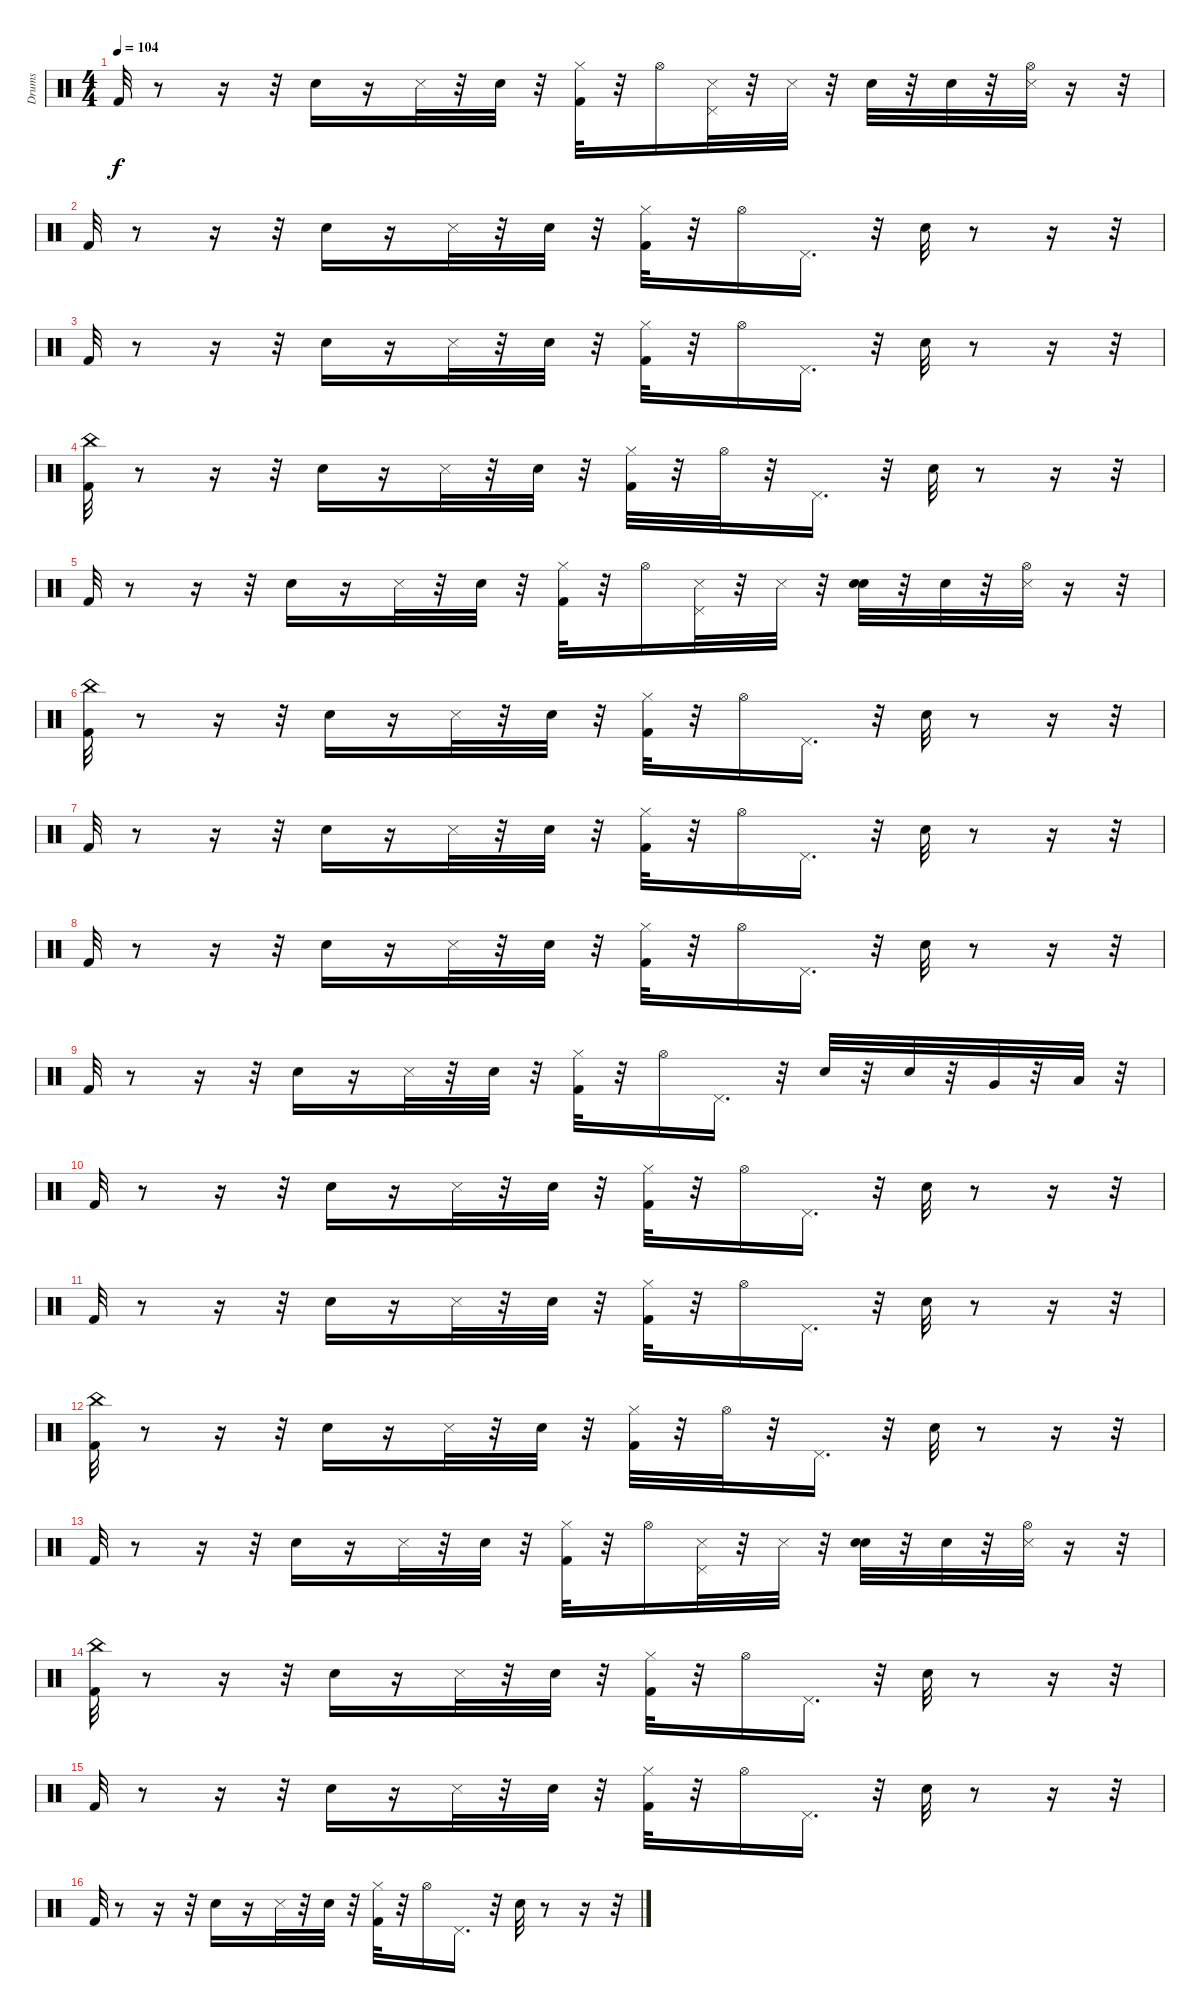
\track ("Drums" "Drums") {instrument percussion}
\staff {score}
\articulation defaults
\ts (4 4)
\tempo 104
\clef neutral
\ks c "Kick (hit) 2".32{dy f}
r.8 r.16 r.32 "Snare (hit) 2".16 r.16 "Snare (side stick) 3".32 r.32 "Electric Snare (hit)".32 r.32 ("Kick (hit) 2" "Hi-Hat (closed)").32 r.32 "Hi-Hat (open)".16 ("Snare (side stick) 3" "Pedal Hi-Hat (hit)").32 r.32 "Snare (side stick) 3".32 r.32 "Snare (hit) 2".32 r.32 "Electric Snare (hit)".32 r.32 ("Snare (side stick) 3" "Hi-Hat (open)").32 r.16 r.32 |
"Kick (hit) 2".32 r.8 r.16 r.32 "Snare (hit) 2".16 r.16 "Snare (side stick) 3".32 r.32 "Electric Snare (hit)".32 r.32 ("Kick (hit) 2" "Hi-Hat (closed)").32 r.32 "Hi-Hat (open)".16 "Pedal Hi-Hat (hit)".16{d} r.32 "Snare (hit) 2".32 r.8 r.16 r.32 |
"Kick (hit) 2".32 r.8 r.16 r.32 "Snare (hit) 2".16 r.16 "Snare (side stick) 3".32 r.32 "Electric Snare (hit)".32 r.32 ("Kick (hit) 2" "Hi-Hat (closed)").32 r.32 "Hi-Hat (open)".16 "Pedal Hi-Hat (hit)".16{d} r.32 "Snare (hit) 2".32 r.8 r.16 r.32 |
("Kick (hit) 2" "China (hit)").32 r.8 r.16 r.32 "Snare (hit) 2".16 r.16 "Snare (side stick) 3".32 r.32 "Electric Snare (hit)".32 r.32 ("Kick (hit) 2" "Hi-Hat (closed)").32 r.32 "Hi-Hat (open)".32 r.32 "Pedal Hi-Hat (hit)".16{d} r.32 "Snare (hit) 2".32 r.8 r.16 r.32 |
"Kick (hit) 2".32 r.8 r.16 r.32 "Snare (hit) 2".16 r.16 "Snare (side stick) 3".32 r.32 "Electric Snare (hit)".32 r.32 ("Kick (hit) 2" "Hi-Hat (closed)").32 r.32 "Hi-Hat (open)".16 ("Snare (side stick) 3" "Pedal Hi-Hat (hit)").32 r.32 "Snare (side stick) 3".32 r.32 ("Snare (hit) 2" "Electric Snare (hit)").32 r.32 "Electric Snare (hit)".32 r.32 ("Snare (side stick) 3" "Hi-Hat (open)").32 r.16 r.32 |
("Kick (hit) 2" "China (hit)").32 r.8 r.16 r.32 "Snare (hit) 2".16 r.16 "Snare (side stick) 3".32 r.32 "Electric Snare (hit)".32 r.32 ("Kick (hit) 2" "Hi-Hat (closed)").32 r.32 "Hi-Hat (open)".16 "Pedal Hi-Hat (hit)".16{d} r.32 "Snare (hit) 2".32 r.8 r.16 r.32 |
"Kick (hit) 2".32 r.8 r.16 r.32 "Snare (hit) 2".16 r.16 "Snare (side stick) 3".32 r.32 "Electric Snare (hit)".32 r.32 ("Kick (hit) 2" "Hi-Hat (closed)").32 r.32 "Hi-Hat (open)".16 "Pedal Hi-Hat (hit)".16{d} r.32 "Snare (hit) 2".32 r.8 r.16 r.32 |
"Kick (hit) 2".32 r.8 r.16 r.32 "Snare (hit) 2".16 r.16 "Snare (side stick) 3".32 r.32 "Electric Snare (hit)".32 r.32 ("Kick (hit) 2" "Hi-Hat (closed)").32 r.32 "Hi-Hat (open)".16 "Pedal Hi-Hat (hit)".16{d} r.32 "Snare (hit) 2".32 r.8 r.16 r.32 |
"Kick (hit) 2".32 r.8 r.16 r.32 "Snare (hit) 2".16 r.16 "Snare (side stick) 3".32 r.32 "Electric Snare (hit)".32 r.32 ("Kick (hit) 2" "Hi-Hat (closed)").32 r.32 "Hi-Hat (open)".16 "Pedal Hi-Hat (hit)".16{d} r.32 "Snare (hit) 2".32 r.32 "Electric Snare (hit)".32 r.32 "Very Low Tom (hit)".32 r.32 "Low Tom (hit)".32 r.32 |
"Kick (hit) 2".32 r.8 r.16 r.32 "Snare (hit) 2".16 r.16 "Snare (side stick) 3".32 r.32 "Electric Snare (hit)".32 r.32 ("Kick (hit) 2" "Hi-Hat (closed)").32 r.32 "Hi-Hat (open)".16 "Pedal Hi-Hat (hit)".16{d} r.32 "Snare (hit) 2".32 r.8 r.16 r.32 |
"Kick (hit) 2".32 r.8 r.16 r.32 "Snare (hit) 2".16 r.16 "Snare (side stick) 3".32 r.32 "Electric Snare (hit)".32 r.32 ("Kick (hit) 2" "Hi-Hat (closed)").32 r.32 "Hi-Hat (open)".16 "Pedal Hi-Hat (hit)".16{d} r.32 "Snare (hit) 2".32 r.8 r.16 r.32 |
("Kick (hit) 2" "China (hit)").32 r.8 r.16 r.32 "Snare (hit) 2".16 r.16 "Snare (side stick) 3".32 r.32 "Electric Snare (hit)".32 r.32 ("Kick (hit) 2" "Hi-Hat (closed)").32 r.32 "Hi-Hat (open)".32 r.32 "Pedal Hi-Hat (hit)".16{d} r.32 "Snare (hit) 2".32 r.8 r.16 r.32 |
"Kick (hit) 2".32 r.8 r.16 r.32 "Snare (hit) 2".16 r.16 "Snare (side stick) 3".32 r.32 "Electric Snare (hit)".32 r.32 ("Kick (hit) 2" "Hi-Hat (closed)").32 r.32 "Hi-Hat (open)".16 ("Snare (side stick) 3" "Pedal Hi-Hat (hit)").32 r.32 "Snare (side stick) 3".32 r.32 ("Snare (hit) 2" "Electric Snare (hit)").32 r.32 "Electric Snare (hit)".32 r.32 ("Snare (side stick) 3" "Hi-Hat (open)").32 r.16 r.32 |
("Kick (hit) 2" "China (hit)").32 r.8 r.16 r.32 "Snare (hit) 2".16 r.16 "Snare (side stick) 3".32 r.32 "Electric Snare (hit)".32 r.32 ("Kick (hit) 2" "Hi-Hat (closed)").32 r.32 "Hi-Hat (open)".16 "Pedal Hi-Hat (hit)".16{d} r.32 "Snare (hit) 2".32 r.8 r.16 r.32 |
"Kick (hit) 2".32 r.8 r.16 r.32 "Snare (hit) 2".16 r.16 "Snare (side stick) 3".32 r.32 "Electric Snare (hit)".32 r.32 ("Kick (hit) 2" "Hi-Hat (closed)").32 r.32 "Hi-Hat (open)".16 "Pedal Hi-Hat (hit)".16{d} r.32 "Snare (hit) 2".32 r.8 r.16 r.32 |
"Kick (hit) 2".32 r.8 r.16 r.32 "Snare (hit) 2".16 r.16 "Snare (side stick) 3".32 r.32 "Electric Snare (hit)".32 r.32 ("Kick (hit) 2" "Hi-Hat (closed)").32 r.32 "Hi-Hat (open)".16 "Pedal Hi-Hat (hit)".16{d} r.32 "Snare (hit) 2".32 r.8 r.16 r.32
